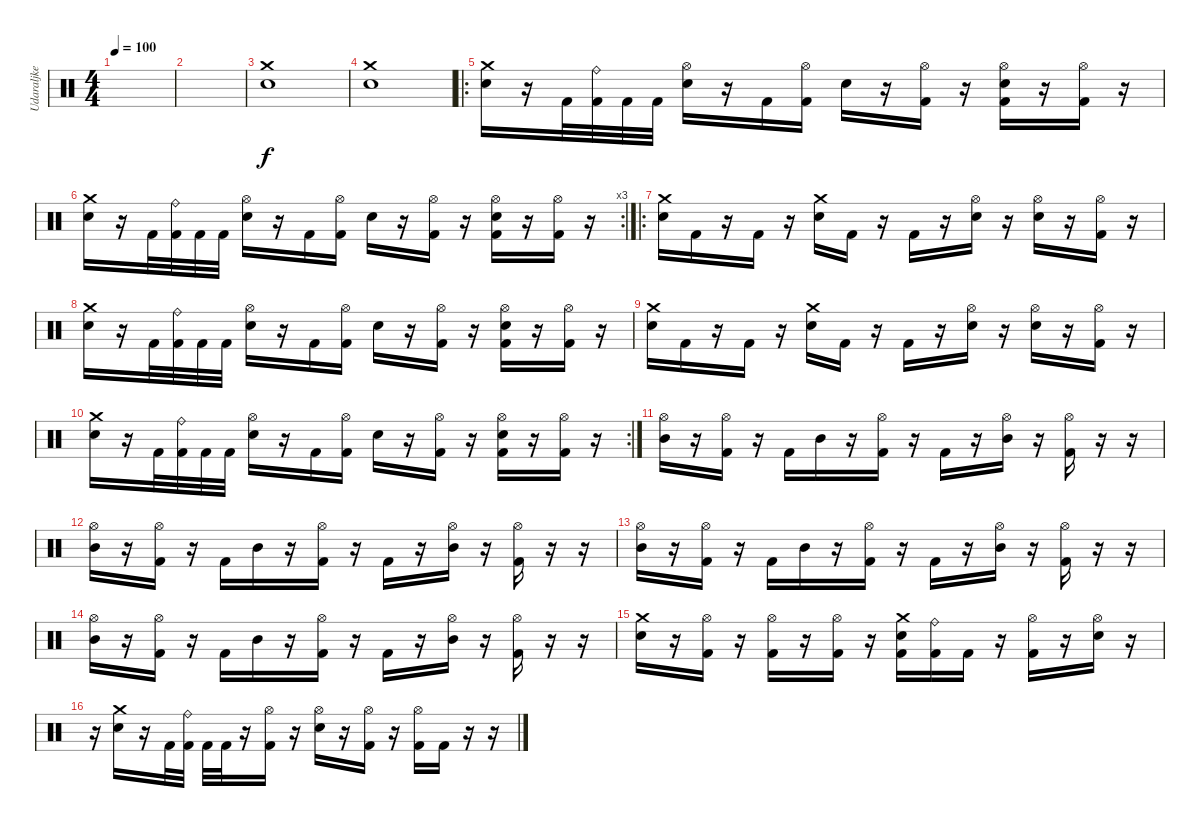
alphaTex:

\track ("Udaraljke" "Udaraljke") {instrument percussion}
\staff {score}
\articulation defaults
\ts (4 4)
\tempo 100
\clef neutral
\ks c
|
|
("Crash medium (hit)" "Snare (hit) 2").1 |
("Crash medium (hit)" "Snare (hit) 2").1 |
\ro
("Crash medium (hit)" "Snare (hit) 2").16 r.16 "Kick (hit) 2".32 ("Ride (bell)" "Kick (hit) 2").32 "Kick (hit) 2".32 "Kick (hit) 2".32 ("Hi-Hat (open)" "Snare (hit) 2").16 r.16 "Kick (hit) 2".16 ("Hi-Hat (open)" "Kick (hit) 2").16 "Snare (hit) 2".16 r.16 ("Hi-Hat (open)" "Kick (hit) 2").16 r.16 ("Snare (hit) 2" "Hi-Hat (open)" "Kick (hit) 2").16 r.16 ("Hi-Hat (open)" "Kick (hit) 2").16 r.16 |
\rc 3
("Crash medium (hit)" "Snare (hit) 2").16 r.16 "Kick (hit) 2".32 ("Ride (bell)" "Kick (hit) 2").32 "Kick (hit) 2".32 "Kick (hit) 2".32 ("Hi-Hat (open)" "Snare (hit) 2").16 r.16 "Kick (hit) 2".16 ("Hi-Hat (open)" "Kick (hit) 2").16 "Snare (hit) 2".16 r.16 ("Hi-Hat (open)" "Kick (hit) 2").16 r.16 ("Snare (hit) 2" "Hi-Hat (open)" "Kick (hit) 2").16 r.16 ("Hi-Hat (open)" "Kick (hit) 2").16 r.16 |
\ro
("Crash medium (hit)" "Snare (hit) 2").16 "Kick (hit) 2".16 r.16 "Kick (hit) 2".16 r.16 ("Crash medium (hit)" "Snare (hit) 2").16 "Kick (hit) 2".16 r.16 "Kick (hit) 2".16 r.16 ("Snare (hit) 2" "Hi-Hat (open)").16 r.16 ("Hi-Hat (open)" "Snare (hit) 2").16 r.16 ("Hi-Hat (open)" "Kick (hit) 2").16 r.16 |
("Crash medium (hit)" "Snare (hit) 2").16 r.16 "Kick (hit) 2".32 ("Ride (bell)" "Kick (hit) 2").32 "Kick (hit) 2".32 "Kick (hit) 2".32 ("Hi-Hat (open)" "Snare (hit) 2").16 r.16 "Kick (hit) 2".16 ("Hi-Hat (open)" "Kick (hit) 2").16 "Snare (hit) 2".16 r.16 ("Hi-Hat (open)" "Kick (hit) 2").16 r.16 ("Snare (hit) 2" "Hi-Hat (open)" "Kick (hit) 2").16 r.16 ("Hi-Hat (open)" "Kick (hit) 2").16 r.16 |
("Crash medium (hit)" "Snare (hit) 2").16 "Kick (hit) 2".16 r.16 "Kick (hit) 2".16 r.16 ("Crash medium (hit)" "Snare (hit) 2").16 "Kick (hit) 2".16 r.16 "Kick (hit) 2".16 r.16 ("Snare (hit) 2" "Hi-Hat (open)").16 r.16 ("Hi-Hat (open)" "Snare (hit) 2").16 r.16 ("Hi-Hat (open)" "Kick (hit) 2").16 r.16 |
\rc 2
("Crash medium (hit)" "Snare (hit) 2").16 r.16 "Kick (hit) 2".32 ("Ride (bell)" "Kick (hit) 2").32 "Kick (hit) 2".32 "Kick (hit) 2".32 ("Hi-Hat (open)" "Snare (hit) 2").16 r.16 "Kick (hit) 2".16 ("Hi-Hat (open)" "Kick (hit) 2").16 "Snare (hit) 2".16 r.16 ("Hi-Hat (open)" "Kick (hit) 2").16 r.16 ("Snare (hit) 2" "Hi-Hat (open)" "Kick (hit) 2").16 r.16 ("Hi-Hat (open)" "Kick (hit) 2").16 r.16 |
("Hi-Hat (open)" "Mid Tom (hit)").16 r.16 ("Hi-Hat (open)" "Kick (hit) 2").16 r.16 "Kick (hit) 2".16 "Mid Tom (hit)".16 r.16 ("Hi-Hat (open)" "Kick (hit) 2").16 r.16 "Kick (hit) 2".16 r.16 ("Hi-Hat (open)" "Mid Tom (hit)").16 r.16 ("Hi-Hat (open)" "Kick (hit) 2").16 r.16 r.16 |
("Hi-Hat (open)" "Mid Tom (hit)").16 r.16 ("Hi-Hat (open)" "Kick (hit) 2").16 r.16 "Kick (hit) 2".16 "Mid Tom (hit)".16 r.16 ("Hi-Hat (open)" "Kick (hit) 2").16 r.16 "Kick (hit) 2".16 r.16 ("Hi-Hat (open)" "Mid Tom (hit)").16 r.16 ("Hi-Hat (open)" "Kick (hit) 2").16 r.16 r.16 |
("Hi-Hat (open)" "Mid Tom (hit)").16 r.16 ("Hi-Hat (open)" "Kick (hit) 2").16 r.16 "Kick (hit) 2".16 "Mid Tom (hit)".16 r.16 ("Hi-Hat (open)" "Kick (hit) 2").16 r.16 "Kick (hit) 2".16 r.16 ("Hi-Hat (open)" "Mid Tom (hit)").16 r.16 ("Hi-Hat (open)" "Kick (hit) 2").16 r.16 r.16 |
("Hi-Hat (open)" "Mid Tom (hit)").16 r.16 ("Hi-Hat (open)" "Kick (hit) 2").16 r.16 "Kick (hit) 2".16 "Mid Tom (hit)".16 r.16 ("Hi-Hat (open)" "Kick (hit) 2").16 r.16 "Kick (hit) 2".16 r.16 ("Hi-Hat (open)" "Mid Tom (hit)").16 r.16 ("Hi-Hat (open)" "Kick (hit) 2").16 r.16 r.16 |
("Snare (hit) 2" "Crash medium (hit)").16 r.16 ("Hi-Hat (open)" "Kick (hit) 2").16 r.16 ("Hi-Hat (open)" "Kick (hit) 2").16 r.16 ("Hi-Hat (open)" "Kick (hit) 2").16 r.16 ("Crash medium (hit)" "Snare (hit) 2" "Kick (hit) 2").16 ("Ride (bell)" "Kick (hit) 2").16 "Kick (hit) 2".16 r.16 ("Hi-Hat (open)" "Kick (hit) 2").16 r.16 ("Hi-Hat (open)" "Snare (hit) 2").16 r.16 |
r.16 ("Crash medium (hit)" "Snare (hit) 2").16 r.16 "Kick (hit) 2".32 ("Ride (bell)" "Kick (hit) 2").32 "Kick (hit) 2".32 "Kick (hit) 2".32 r.16 ("Hi-Hat (open)" "Kick (hit) 2").16 r.16 ("Hi-Hat (open)" "Snare (hit) 2").16 r.16 ("Hi-Hat (open)" "Kick (hit) 2").16 r.16 ("Hi-Hat (open)" "Kick (hit) 2").16 "Kick (hit) 2".16 r.16 r.16
